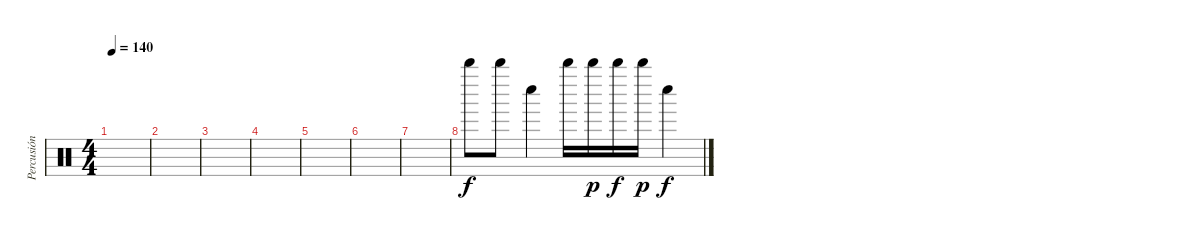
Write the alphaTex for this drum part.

\track ("Percusión Fredy Caldas" "Percusión ") {instrument percussion}
\staff {score}
\articulation defaults
\ts (4 4)
\tempo 140
\clef neutral
\ks c
|
|
|
|
|
|
|
"Whistle high (hit)".8{dy f} "Whistle high (hit)".8 "Whistle low (hit)".4 "Whistle high (hit)".16 "Whistle high (hit)".16{dy p} "Whistle high (hit)".16{dy f} "Whistle high (hit)".16{dy p} "Whistle low (hit)".4{dy f}
